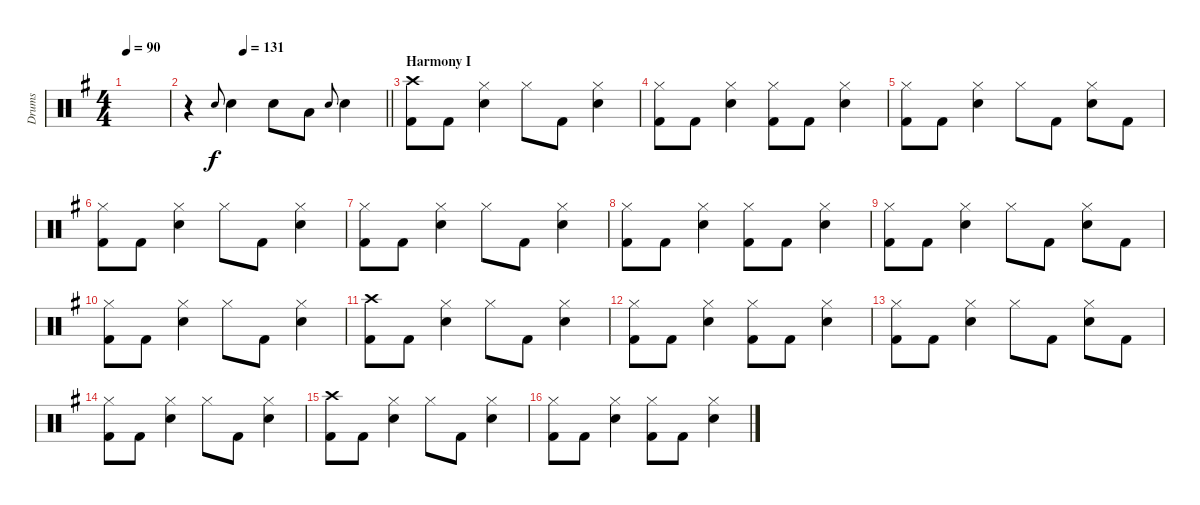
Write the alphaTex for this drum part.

\track ("Drums" "Drums") {instrument percussion}
\staff {score}
\articulation defaults
\ts (4 4)
\tempo 90
\clef neutral
\ks g
|
\tempo (131 0.28125)
\barLineRight lightlight
r.4 "Electric Snare (hit)".8{gr onbeat} "Electric Snare (hit)".4 "Electric Snare (hit)".8 "Low Tom (hit)".8 "Electric Snare (hit)".8{gr onbeat} "Electric Snare (hit)".4 |
\section ("" "Harmony I")
("Crash high (hit)" "Kick (hit) 2").8 "Kick (hit) 2".8 ("Hi-Hat (closed)" "Electric Snare (hit)").4 "Hi-Hat (closed)".8 "Kick (hit) 2".8 ("Hi-Hat (closed)" "Electric Snare (hit)").4 |
("Hi-Hat (closed)" "Kick (hit) 2").8 "Kick (hit) 2".8 ("Hi-Hat (closed)" "Electric Snare (hit)").4 ("Hi-Hat (closed)" "Kick (hit) 2").8 "Kick (hit) 2".8 ("Hi-Hat (closed)" "Electric Snare (hit)").4 |
("Hi-Hat (closed)" "Kick (hit) 2").8 "Kick (hit) 2".8 ("Hi-Hat (closed)" "Electric Snare (hit)").4 "Hi-Hat (closed)".8 "Kick (hit) 2".8 ("Hi-Hat (closed)" "Electric Snare (hit)").8 "Kick (hit) 2".8 |
("Hi-Hat (closed)" "Kick (hit) 2").8 "Kick (hit) 2".8 ("Hi-Hat (closed)" "Electric Snare (hit)").4 "Hi-Hat (closed)".8 "Kick (hit) 2".8 ("Hi-Hat (closed)" "Electric Snare (hit)").4 |
("Hi-Hat (closed)" "Kick (hit) 2").8 "Kick (hit) 2".8 ("Hi-Hat (closed)" "Electric Snare (hit)").4 "Hi-Hat (closed)".8 "Kick (hit) 2".8 ("Hi-Hat (closed)" "Electric Snare (hit)").4 |
("Hi-Hat (closed)" "Kick (hit) 2").8 "Kick (hit) 2".8 ("Hi-Hat (closed)" "Electric Snare (hit)").4 ("Hi-Hat (closed)" "Kick (hit) 2").8 "Kick (hit) 2".8 ("Hi-Hat (closed)" "Electric Snare (hit)").4 |
("Hi-Hat (closed)" "Kick (hit) 2").8 "Kick (hit) 2".8 ("Hi-Hat (closed)" "Electric Snare (hit)").4 "Hi-Hat (closed)".8 "Kick (hit) 2".8 ("Hi-Hat (closed)" "Electric Snare (hit)").8 "Kick (hit) 2".8 |
("Hi-Hat (closed)" "Kick (hit) 2").8 "Kick (hit) 2".8 ("Hi-Hat (closed)" "Electric Snare (hit)").4 "Hi-Hat (closed)".8 "Kick (hit) 2".8 ("Hi-Hat (closed)" "Electric Snare (hit)").4 |
("Crash high (hit)" "Kick (hit) 2").8 "Kick (hit) 2".8 ("Hi-Hat (closed)" "Electric Snare (hit)").4 "Hi-Hat (closed)".8 "Kick (hit) 2".8 ("Hi-Hat (closed)" "Electric Snare (hit)").4 |
("Hi-Hat (closed)" "Kick (hit) 2").8 "Kick (hit) 2".8 ("Hi-Hat (closed)" "Electric Snare (hit)").4 ("Hi-Hat (closed)" "Kick (hit) 2").8 "Kick (hit) 2".8 ("Hi-Hat (closed)" "Electric Snare (hit)").4 |
("Hi-Hat (closed)" "Kick (hit) 2").8 "Kick (hit) 2".8 ("Hi-Hat (closed)" "Electric Snare (hit)").4 "Hi-Hat (closed)".8 "Kick (hit) 2".8 ("Hi-Hat (closed)" "Electric Snare (hit)").8 "Kick (hit) 2".8 |
("Hi-Hat (closed)" "Kick (hit) 2").8 "Kick (hit) 2".8 ("Hi-Hat (closed)" "Electric Snare (hit)").4 "Hi-Hat (closed)".8 "Kick (hit) 2".8 ("Hi-Hat (closed)" "Electric Snare (hit)").4 |
("Crash high (hit)" "Kick (hit) 2").8 "Kick (hit) 2".8 ("Hi-Hat (closed)" "Electric Snare (hit)").4 "Hi-Hat (closed)".8 "Kick (hit) 2".8 ("Hi-Hat (closed)" "Electric Snare (hit)").4 |
("Hi-Hat (closed)" "Kick (hit) 2").8 "Kick (hit) 2".8 ("Hi-Hat (closed)" "Electric Snare (hit)").4 ("Hi-Hat (closed)" "Kick (hit) 2").8 "Kick (hit) 2".8 ("Hi-Hat (closed)" "Electric Snare (hit)").4
